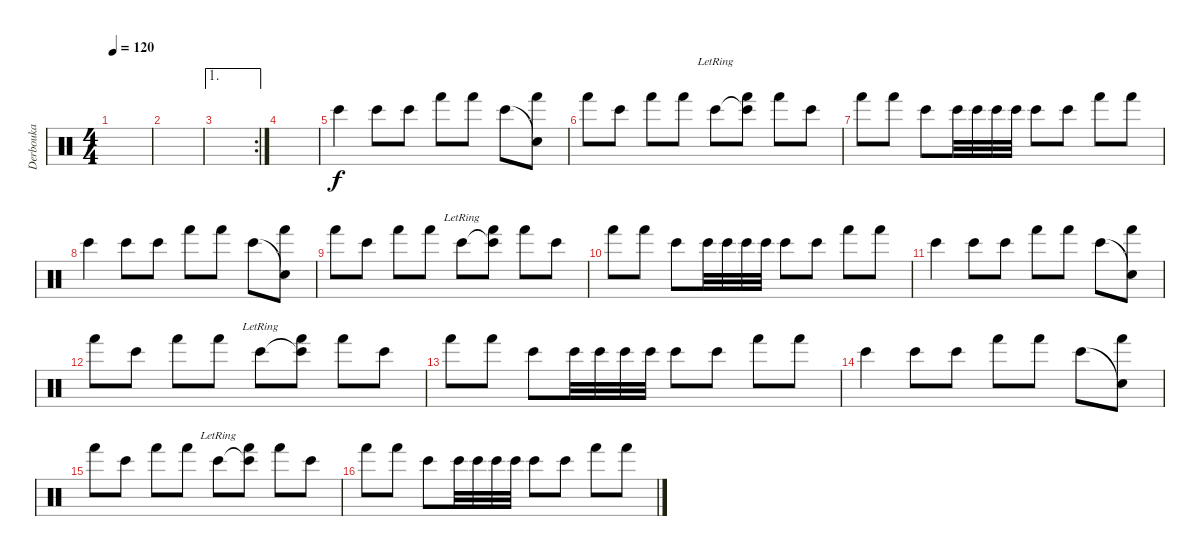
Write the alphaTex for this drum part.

\track ("Derbouka" "Derbouka") {instrument percussion}
\staff {score}
\articulation defaults
\ts (4 4)
\tempo 120
\clef neutral
\ks c
|
|
\ae 1
\rc 2
|
|
"Bongo High (hit)".4 "Bongo High (hit)".8 "Bongo High (hit)".8 "Hand (hit)".8 "Hand (hit)".8 "Bongo High (hit)".8 ("Snare (hit)"{t} "Hand (hit)").8 |
"Hand (hit)".8 "Bongo High (hit)".8 "Hand (hit)".8 "Hand (hit)".8 "Bongo High (hit)"{lr}.8 ("Bongo High (hit)"{t} "Hand (hit)").8 "Hand (hit)".8 "Bongo High (hit)".8 |
"Hand (hit)".8 "Hand (hit)".8 "Bongo High (hit)".8 "Bongo High (hit)".32 "Bongo High (hit)".32 "Bongo High (hit)".32 "Bongo High (hit)".32 "Bongo High (hit)".8 "Bongo High (hit)".8 "Hand (hit)".8 "Hand (hit)".8 |
"Bongo High (hit)".4 "Bongo High (hit)".8 "Bongo High (hit)".8 "Hand (hit)".8 "Hand (hit)".8 "Bongo High (hit)".8 ("Snare (hit)"{t} "Hand (hit)").8 |
"Hand (hit)".8 "Bongo High (hit)".8 "Hand (hit)".8 "Hand (hit)".8 "Bongo High (hit)"{lr}.8 ("Bongo High (hit)"{t} "Hand (hit)").8 "Hand (hit)".8 "Bongo High (hit)".8 |
"Hand (hit)".8 "Hand (hit)".8 "Bongo High (hit)".8 "Bongo High (hit)".32 "Bongo High (hit)".32 "Bongo High (hit)".32 "Bongo High (hit)".32 "Bongo High (hit)".8 "Bongo High (hit)".8 "Hand (hit)".8 "Hand (hit)".8 |
"Bongo High (hit)".4 "Bongo High (hit)".8 "Bongo High (hit)".8 "Hand (hit)".8 "Hand (hit)".8 "Bongo High (hit)".8 ("Snare (hit)"{t} "Hand (hit)").8 |
"Hand (hit)".8 "Bongo High (hit)".8 "Hand (hit)".8 "Hand (hit)".8 "Bongo High (hit)"{lr}.8 ("Bongo High (hit)"{t} "Hand (hit)").8 "Hand (hit)".8 "Bongo High (hit)".8 |
"Hand (hit)".8 "Hand (hit)".8 "Bongo High (hit)".8 "Bongo High (hit)".32 "Bongo High (hit)".32 "Bongo High (hit)".32 "Bongo High (hit)".32 "Bongo High (hit)".8 "Bongo High (hit)".8 "Hand (hit)".8 "Hand (hit)".8 |
"Bongo High (hit)".4 "Bongo High (hit)".8 "Bongo High (hit)".8 "Hand (hit)".8 "Hand (hit)".8 "Bongo High (hit)".8 ("Snare (hit)"{t} "Hand (hit)").8 |
"Hand (hit)".8 "Bongo High (hit)".8 "Hand (hit)".8 "Hand (hit)".8 "Bongo High (hit)"{lr}.8 ("Bongo High (hit)"{t} "Hand (hit)").8 "Hand (hit)".8 "Bongo High (hit)".8 |
"Hand (hit)".8 "Hand (hit)".8 "Bongo High (hit)".8 "Bongo High (hit)".32 "Bongo High (hit)".32 "Bongo High (hit)".32 "Bongo High (hit)".32 "Bongo High (hit)".8 "Bongo High (hit)".8 "Hand (hit)".8 "Hand (hit)".8
